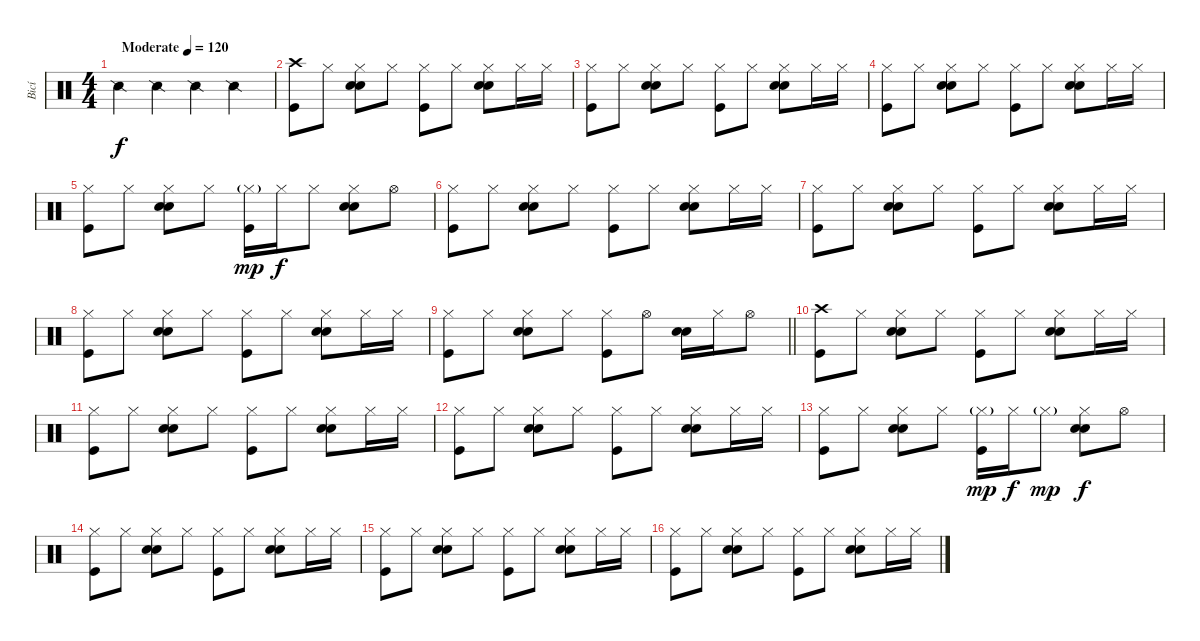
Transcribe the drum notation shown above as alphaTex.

\track ("Bicí" "Bicí") {instrument percussion}
\staff {score}
\articulation defaults
\ts (4 4)
\tempo (120 "Moderate")
\clef neutral
\ks c "Snare (side stick) 2".4{dy f} "Snare (side stick) 2".4 "Snare (side stick) 2".4 "Snare (side stick) 2".4
|
("Crash high (hit)" "Kick (hit)").8 "Hi-Hat (closed)".8 ("Hi-Hat (closed)" "Hand Clap (hit)" "Electric Snare (hit)").8 "Hi-Hat (closed)".8 ("Hi-Hat (closed)" "Kick (hit)").8 "Hi-Hat (closed)".8 ("Hi-Hat (closed)" "Hand Clap (hit)" "Electric Snare (hit)").8 "Hi-Hat (closed)".16 "Hi-Hat (closed)".16 |
("Hi-Hat (closed)" "Kick (hit)").8 "Hi-Hat (closed)".8 ("Hi-Hat (closed)" "Hand Clap (hit)" "Electric Snare (hit)").8 "Hi-Hat (closed)".8 ("Hi-Hat (closed)" "Kick (hit)").8 "Hi-Hat (closed)".8 ("Hi-Hat (closed)" "Hand Clap (hit)" "Electric Snare (hit)").8 "Hi-Hat (closed)".16 "Hi-Hat (closed)".16 |
("Hi-Hat (closed)" "Kick (hit)").8 "Hi-Hat (closed)".8 ("Hi-Hat (closed)" "Hand Clap (hit)" "Electric Snare (hit)").8 "Hi-Hat (closed)".8 ("Hi-Hat (closed)" "Kick (hit)").8 "Hi-Hat (closed)".8 ("Hi-Hat (closed)" "Hand Clap (hit)" "Electric Snare (hit)").8 "Hi-Hat (closed)".16 "Hi-Hat (closed)".16 |
("Hi-Hat (closed)" "Kick (hit)").8 "Hi-Hat (closed)".8 ("Hi-Hat (closed)" "Hand Clap (hit)" "Electric Snare (hit)").8 "Hi-Hat (closed)".8 ("Hi-Hat (closed)"{g} "Kick (hit)").16{dy mp} "Hi-Hat (closed)".16{dy f} "Hi-Hat (closed)".8 ("Hi-Hat (closed)" "Hand Clap (hit)" "Electric Snare (hit)").8 "Hi-Hat (open)".8 |
("Hi-Hat (closed)" "Kick (hit)").8 "Hi-Hat (closed)".8 ("Hi-Hat (closed)" "Hand Clap (hit)" "Electric Snare (hit)").8 "Hi-Hat (closed)".8 ("Hi-Hat (closed)" "Kick (hit)").8 "Hi-Hat (closed)".8 ("Hi-Hat (closed)" "Hand Clap (hit)" "Electric Snare (hit)").8 "Hi-Hat (closed)".16 "Hi-Hat (closed)".16 |
("Hi-Hat (closed)" "Kick (hit)").8 "Hi-Hat (closed)".8 ("Hi-Hat (closed)" "Hand Clap (hit)" "Electric Snare (hit)").8 "Hi-Hat (closed)".8 ("Hi-Hat (closed)" "Kick (hit)").8 "Hi-Hat (closed)".8 ("Hi-Hat (closed)" "Hand Clap (hit)" "Electric Snare (hit)").8 "Hi-Hat (closed)".16 "Hi-Hat (closed)".16 |
("Hi-Hat (closed)" "Kick (hit)").8 "Hi-Hat (closed)".8 ("Hi-Hat (closed)" "Hand Clap (hit)" "Electric Snare (hit)").8 "Hi-Hat (closed)".8 ("Hi-Hat (closed)" "Kick (hit)").8 "Hi-Hat (closed)".8 ("Hi-Hat (closed)" "Hand Clap (hit)" "Electric Snare (hit)").8 "Hi-Hat (closed)".16 "Hi-Hat (closed)".16 |
\barLineRight lightlight
("Hi-Hat (closed)" "Kick (hit)").8 "Hi-Hat (closed)".8 ("Hi-Hat (closed)" "Hand Clap (hit)" "Electric Snare (hit)").8 "Hi-Hat (closed)".8 ("Hi-Hat (closed)" "Kick (hit)").8 "Hi-Hat (open)".8 ("Hand Clap (hit)" "Electric Snare (hit)").16 "Hi-Hat (closed)".16 "Hi-Hat (open)".8 |
\section ("" "")
("Crash high (hit)" "Kick (hit)").8 "Hi-Hat (closed)".8 ("Hi-Hat (closed)" "Hand Clap (hit)" "Electric Snare (hit)").8 "Hi-Hat (closed)".8 ("Hi-Hat (closed)" "Kick (hit)").8 "Hi-Hat (closed)".8 ("Hi-Hat (closed)" "Hand Clap (hit)" "Electric Snare (hit)").8 "Hi-Hat (closed)".16 "Hi-Hat (closed)".16 |
("Hi-Hat (closed)" "Kick (hit)").8 "Hi-Hat (closed)".8 ("Hi-Hat (closed)" "Hand Clap (hit)" "Electric Snare (hit)").8 "Hi-Hat (closed)".8 ("Hi-Hat (closed)" "Kick (hit)").8 "Hi-Hat (closed)".8 ("Hi-Hat (closed)" "Hand Clap (hit)" "Electric Snare (hit)").8 "Hi-Hat (closed)".16 "Hi-Hat (closed)".16 |
("Hi-Hat (closed)" "Kick (hit)").8 "Hi-Hat (closed)".8 ("Hi-Hat (closed)" "Hand Clap (hit)" "Electric Snare (hit)").8 "Hi-Hat (closed)".8 ("Hi-Hat (closed)" "Kick (hit)").8 "Hi-Hat (closed)".8 ("Hi-Hat (closed)" "Hand Clap (hit)" "Electric Snare (hit)").8 "Hi-Hat (closed)".16 "Hi-Hat (closed)".16 |
("Hi-Hat (closed)" "Kick (hit)").8 "Hi-Hat (closed)".8 ("Hi-Hat (closed)" "Hand Clap (hit)" "Electric Snare (hit)").8 "Hi-Hat (closed)".8 ("Hi-Hat (closed)"{g} "Kick (hit)").16{dy mp} "Hi-Hat (closed)".16{dy f} "Hi-Hat (closed)"{g}.8{dy mp} ("Hi-Hat (closed)" "Hand Clap (hit)" "Electric Snare (hit)").8{dy f} "Hi-Hat (open)".8 |
("Hi-Hat (closed)" "Kick (hit)").8 "Hi-Hat (closed)".8 ("Hi-Hat (closed)" "Hand Clap (hit)" "Electric Snare (hit)").8 "Hi-Hat (closed)".8 ("Hi-Hat (closed)" "Kick (hit)").8 "Hi-Hat (closed)".8 ("Hi-Hat (closed)" "Hand Clap (hit)" "Electric Snare (hit)").8 "Hi-Hat (closed)".16 "Hi-Hat (closed)".16 |
("Hi-Hat (closed)" "Kick (hit)").8 "Hi-Hat (closed)".8 ("Hi-Hat (closed)" "Hand Clap (hit)" "Electric Snare (hit)").8 "Hi-Hat (closed)".8 ("Hi-Hat (closed)" "Kick (hit)").8 "Hi-Hat (closed)".8 ("Hi-Hat (closed)" "Hand Clap (hit)" "Electric Snare (hit)").8 "Hi-Hat (closed)".16 "Hi-Hat (closed)".16 |
("Hi-Hat (closed)" "Kick (hit)").8 "Hi-Hat (closed)".8 ("Hi-Hat (closed)" "Hand Clap (hit)" "Electric Snare (hit)").8 "Hi-Hat (closed)".8 ("Hi-Hat (closed)" "Kick (hit)").8 "Hi-Hat (closed)".8 ("Hi-Hat (closed)" "Hand Clap (hit)" "Electric Snare (hit)").8 "Hi-Hat (closed)".16 "Hi-Hat (closed)".16
